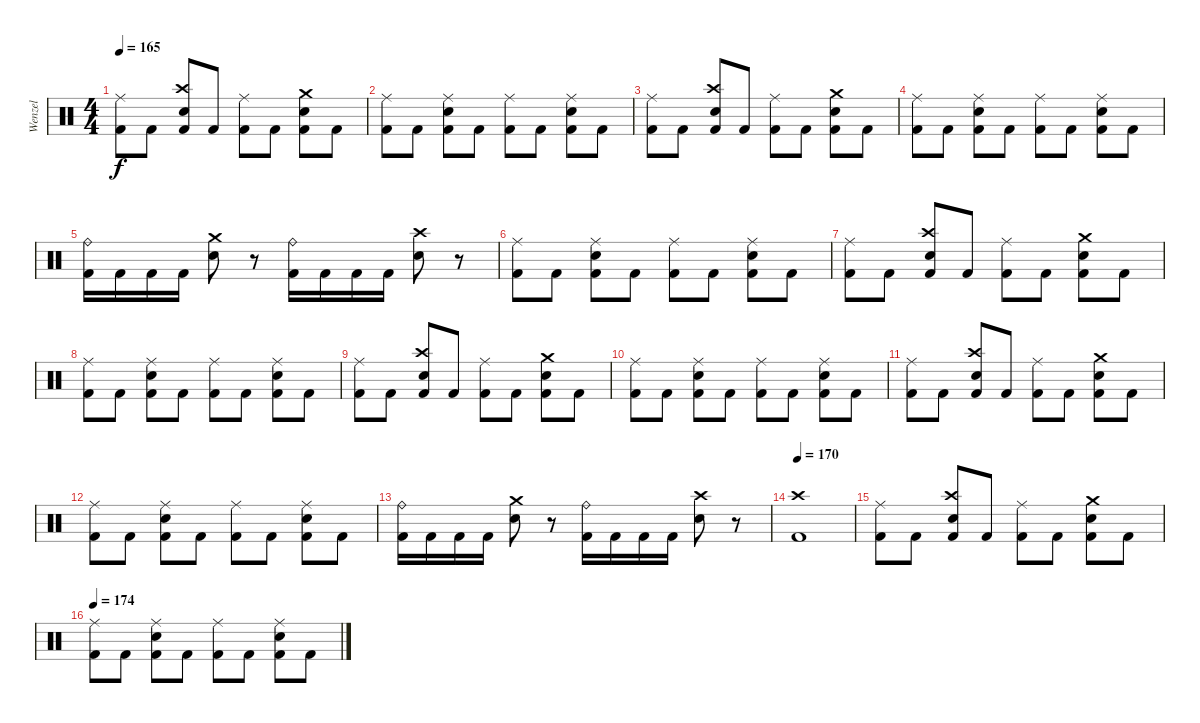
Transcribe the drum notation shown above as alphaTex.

\track ("Wenzel" "Wenzel") {instrument percussion}
\staff {score}
\articulation defaults
\ts (4 4)
\tempo 165
\clef neutral
\ks c
("Ride (middle)" "Kick (hit) 2").8{dy f} "Kick (hit) 2".8 ("Crash high (hit)" "Snare (hit) 2" "Kick (hit) 2").8 "Kick (hit) 2".8 ("Ride (middle)" "Kick (hit) 2").8 "Kick (hit) 2".8 ("Crash medium (hit)" "Snare (hit) 2" "Kick (hit) 2").8 "Kick (hit) 2".8 |
("Ride (middle)" "Kick (hit) 2").8 "Kick (hit) 2".8 ("Ride (middle)" "Snare (hit) 2" "Kick (hit) 2").8 "Kick (hit) 2".8 ("Ride (middle)" "Kick (hit) 2").8 "Kick (hit) 2".8 ("Ride (middle)" "Snare (hit) 2" "Kick (hit) 2").8 "Kick (hit) 2".8 |
("Ride (middle)" "Kick (hit) 2").8 "Kick (hit) 2".8 ("Crash high (hit)" "Snare (hit) 2" "Kick (hit) 2").8 "Kick (hit) 2".8 ("Ride (middle)" "Kick (hit) 2").8 "Kick (hit) 2".8 ("Crash medium (hit)" "Snare (hit) 2" "Kick (hit) 2").8 "Kick (hit) 2".8 |
("Ride (middle)" "Kick (hit) 2").8 "Kick (hit) 2".8 ("Ride (middle)" "Snare (hit) 2" "Kick (hit) 2").8 "Kick (hit) 2".8 ("Ride (middle)" "Kick (hit) 2").8 "Kick (hit) 2".8 ("Ride (middle)" "Snare (hit) 2" "Kick (hit) 2").8 "Kick (hit) 2".8 |
("Ride (bell)" "Kick (hit) 2").16 "Kick (hit) 2".16 "Kick (hit) 2".16 "Kick (hit) 2".16 ("Crash medium (hit)" "Snare (hit) 2").8 r.8 ("Ride (bell)" "Kick (hit) 2").16 "Kick (hit) 2".16 "Kick (hit) 2".16 "Kick (hit) 2".16 ("Crash high (hit)" "Snare (hit) 2").8 r.8 |
("Ride (middle)" "Kick (hit) 2").8 "Kick (hit) 2".8 ("Ride (middle)" "Snare (hit) 2" "Kick (hit) 2").8 "Kick (hit) 2".8 ("Ride (middle)" "Kick (hit) 2").8 "Kick (hit) 2".8 ("Ride (middle)" "Snare (hit) 2" "Kick (hit) 2").8 "Kick (hit) 2".8 |
("Ride (middle)" "Kick (hit) 2").8 "Kick (hit) 2".8 ("Crash high (hit)" "Snare (hit) 2" "Kick (hit) 2").8 "Kick (hit) 2".8 ("Ride (middle)" "Kick (hit) 2").8 "Kick (hit) 2".8 ("Crash medium (hit)" "Snare (hit) 2" "Kick (hit) 2").8 "Kick (hit) 2".8 |
("Ride (middle)" "Kick (hit) 2").8 "Kick (hit) 2".8 ("Ride (middle)" "Snare (hit) 2" "Kick (hit) 2").8 "Kick (hit) 2".8 ("Ride (middle)" "Kick (hit) 2").8 "Kick (hit) 2".8 ("Ride (middle)" "Snare (hit) 2" "Kick (hit) 2").8 "Kick (hit) 2".8 |
("Ride (middle)" "Kick (hit) 2").8 "Kick (hit) 2".8 ("Crash high (hit)" "Snare (hit) 2" "Kick (hit) 2").8 "Kick (hit) 2".8 ("Ride (middle)" "Kick (hit) 2").8 "Kick (hit) 2".8 ("Crash medium (hit)" "Snare (hit) 2" "Kick (hit) 2").8 "Kick (hit) 2".8 |
("Ride (middle)" "Kick (hit) 2").8 "Kick (hit) 2".8 ("Ride (middle)" "Snare (hit) 2" "Kick (hit) 2").8 "Kick (hit) 2".8 ("Ride (middle)" "Kick (hit) 2").8 "Kick (hit) 2".8 ("Ride (middle)" "Snare (hit) 2" "Kick (hit) 2").8 "Kick (hit) 2".8 |
("Ride (middle)" "Kick (hit) 2").8 "Kick (hit) 2".8 ("Crash high (hit)" "Snare (hit) 2" "Kick (hit) 2").8 "Kick (hit) 2".8 ("Ride (middle)" "Kick (hit) 2").8 "Kick (hit) 2".8 ("Crash medium (hit)" "Snare (hit) 2" "Kick (hit) 2").8 "Kick (hit) 2".8 |
("Ride (middle)" "Kick (hit) 2").8 "Kick (hit) 2".8 ("Ride (middle)" "Snare (hit) 2" "Kick (hit) 2").8 "Kick (hit) 2".8 ("Ride (middle)" "Kick (hit) 2").8 "Kick (hit) 2".8 ("Ride (middle)" "Snare (hit) 2" "Kick (hit) 2").8 "Kick (hit) 2".8 |
("Ride (bell)" "Kick (hit) 2").16 "Kick (hit) 2".16 "Kick (hit) 2".16 "Kick (hit) 2".16 ("Crash medium (hit)" "Snare (hit) 2").8 r.8 ("Ride (bell)" "Kick (hit) 2").16 "Kick (hit) 2".16 "Kick (hit) 2".16 "Kick (hit) 2".16 ("Crash high (hit)" "Snare (hit) 2").8 r.8 |
\tempo 170
("Crash high (hit)" "Kick (hit) 2").1 |
("Ride (middle)" "Kick (hit) 2").8{volume 0} "Kick (hit) 2".8 ("Crash high (hit)" "Snare (hit) 2" "Kick (hit) 2").8 "Kick (hit) 2".8 ("Ride (middle)" "Kick (hit) 2").8 "Kick (hit) 2".8 ("Crash medium (hit)" "Snare (hit) 2" "Kick (hit) 2").8 "Kick (hit) 2".8 |
\tempo 174
("Ride (middle)" "Kick (hit) 2").8 "Kick (hit) 2".8 ("Ride (middle)" "Snare (hit) 2" "Kick (hit) 2").8 "Kick (hit) 2".8 ("Ride (middle)" "Kick (hit) 2").8 "Kick (hit) 2".8 ("Ride (middle)" "Snare (hit) 2" "Kick (hit) 2").8 "Kick (hit) 2".8
